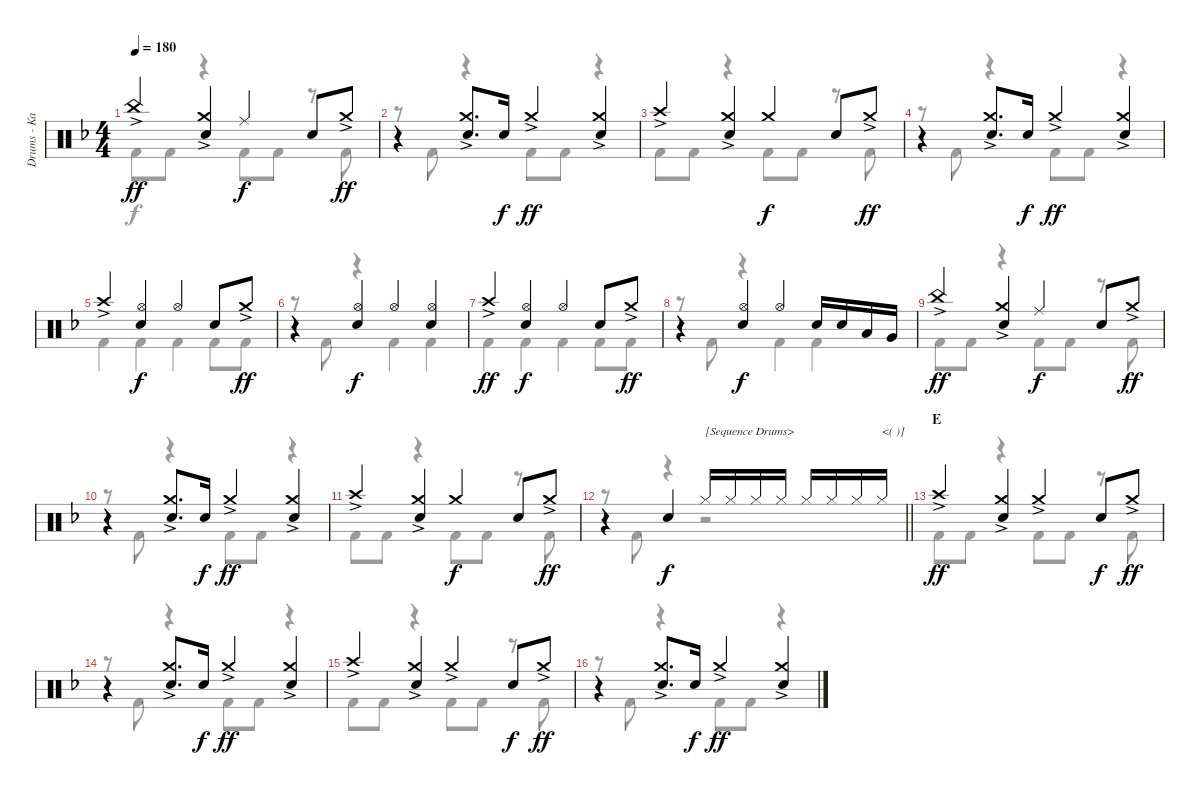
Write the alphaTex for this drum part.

\track ("Drums - Kai" "Drums - Ka") {instrument percussion}
\staff {score}
\articulation defaults
\voice
\ts (4 4)
\tempo 180
\clef neutral
\ks f "China (hit)"{ac}.4{dy ff}
("Crash medium (hit)"{ac} "Snare (hit) 2").4 "Ride (middle)".4{dy f} "Snare (hit) 2".8 "Crash medium (hit)"{ac}.8{dy ff} |
r.4 ("Crash medium (hit)"{ac} "Snare (hit) 2").8{d} "Snare (hit) 2".16{dy f} "Crash medium (hit)"{ac}.4{dy ff} ("Crash medium (hit)"{ac} "Snare (hit) 2").4 |
"Crash high (hit)"{ac}.4 ("Crash medium (hit)"{ac} "Snare (hit) 2").4 "Crash medium (hit)".4{dy f} "Snare (hit) 2".8 "Crash medium (hit)"{ac}.8{dy ff} |
r.4 ("Crash medium (hit)"{ac} "Snare (hit) 2").8{d} "Snare (hit) 2".16{dy f} "Crash medium (hit)"{ac}.4{dy ff} ("Crash medium (hit)"{ac} "Snare (hit) 2").4 |
"Crash high (hit)"{ac}.4 ("Hi-Hat (open)" "Snare (hit) 2").4{dy f} "Hi-Hat (open)".4 "Snare (hit) 2".8 "Crash medium (hit)"{ac}.8{dy ff} |
r.4 ("Hi-Hat (open)" "Snare (hit) 2").4{dy f} "Hi-Hat (open)".4 ("Hi-Hat (open)" "Snare (hit) 2").4 |
"Crash high (hit)"{ac}.4{dy ff} ("Hi-Hat (open)" "Snare (hit) 2").4{dy f} "Hi-Hat (open)".4 "Snare (hit) 2".8 "Crash medium (hit)"{ac}.8{dy ff} |
r.4 ("Hi-Hat (open)" "Snare (hit) 2").4{dy f} "Hi-Hat (open)".4 "Snare (hit) 2".16 "Snare (hit) 2".16 "Low Tom (hit)".16 "Very Low Tom (hit)".16 |
"China (hit)"{ac}.4{dy ff} ("Crash medium (hit)"{ac} "Snare (hit) 2").4 "Ride (middle)".4{dy f} "Snare (hit) 2".8 "Crash medium (hit)"{ac}.8{dy ff} |
r.4 ("Crash medium (hit)"{ac} "Snare (hit) 2").8{d} "Snare (hit) 2".16{dy f} "Crash medium (hit)"{ac}.4{dy ff} ("Crash medium (hit)"{ac} "Snare (hit) 2").4 |
"Crash high (hit)"{ac}.4 ("Crash medium (hit)"{ac} "Snare (hit) 2").4 "Crash medium (hit)".4{dy f} "Snare (hit) 2".8 "Crash medium (hit)"{ac}.8{dy ff} |
\barLineRight lightlight
r.4 "Snare (hit) 2".4{dy f} "Hi-Hat (closed)".16{txt "[Sequence Drums>"} "Hi-Hat (closed)".16 "Hi-Hat (closed)".16 "Hi-Hat (closed)".16 "Hi-Hat (closed)".16 "Hi-Hat (closed)".16 "Hi-Hat (closed)".16 "Hi-Hat (closed)".16{txt "<( )]"} |
\section ("" "E")
"Crash high (hit)"{ac}.4{dy ff} ("Crash medium (hit)"{ac} "Snare (hit) 2").4 "Crash medium (hit)"{ac}.4 "Snare (hit) 2".8{dy f} "Crash medium (hit)"{ac}.8{dy ff} |
r.4 ("Crash medium (hit)"{ac} "Snare (hit) 2").8{d} "Snare (hit) 2".16{dy f} "Crash medium (hit)"{ac}.4{dy ff} ("Crash medium (hit)"{ac} "Snare (hit) 2").4 |
"Crash high (hit)"{ac}.4 ("Crash medium (hit)"{ac} "Snare (hit) 2").4 "Crash medium (hit)"{ac}.4 "Snare (hit) 2".8{dy f} "Crash medium (hit)"{ac}.8{dy ff} |
r.4 ("Crash medium (hit)"{ac} "Snare (hit) 2").8{d} "Snare (hit) 2".16{dy f} "Crash medium (hit)"{ac}.4{dy ff} ("Crash medium (hit)"{ac} "Snare (hit) 2").4
\voice
\clef neutral
\ottava regular
\simile none
\ks f "Kick (hit) 2".8{dy f} "Kick (hit) 2".8
r.4 "Kick (hit) 2".8 "Kick (hit) 2".8 r.8 "Kick (hit) 2".8 |
r.8 "Kick (hit) 2".8 r.4 "Kick (hit) 2".8 "Kick (hit) 2".8 r.4 |
"Kick (hit) 2".8 "Kick (hit) 2".8 r.4 "Kick (hit) 2".8 "Kick (hit) 2".8 r.8 "Kick (hit) 2".8 |
r.8 "Kick (hit) 2".8 r.4 "Kick (hit) 2".8 "Kick (hit) 2".8 r.4 |
"Kick (hit) 2".4 "Kick (hit) 2".4 "Kick (hit) 2".4 "Kick (hit) 2".8 "Kick (hit) 2".8 |
r.8 "Kick (hit) 2".8 r.4 "Kick (hit) 2".4 "Kick (hit) 2".4 |
"Kick (hit) 2".4 "Kick (hit) 2".4 "Kick (hit) 2".4 "Kick (hit) 2".8 "Kick (hit) 2".8 |
r.8 "Kick (hit) 2".8 r.4 "Kick (hit) 2".4 "Kick (hit) 2".4 |
"Kick (hit) 2".8 "Kick (hit) 2".8 r.4 "Kick (hit) 2".8 "Kick (hit) 2".8 r.8 "Kick (hit) 2".8 |
r.8 "Kick (hit) 2".8 r.4 "Kick (hit) 2".8 "Kick (hit) 2".8 r.4 |
"Kick (hit) 2".8 "Kick (hit) 2".8 r.4 "Kick (hit) 2".8 "Kick (hit) 2".8 r.8 "Kick (hit) 2".8 |
\barLineRight lightlight
r.8 "Kick (hit) 2".8 r.4 r.2 |
"Kick (hit) 2".8 "Kick (hit) 2".8 r.4 "Kick (hit) 2".8 "Kick (hit) 2".8 r.8 "Kick (hit) 2".8 |
r.8 "Kick (hit) 2".8 r.4 "Kick (hit) 2".8 "Kick (hit) 2".8 r.4 |
"Kick (hit) 2".8 "Kick (hit) 2".8 r.4 "Kick (hit) 2".8 "Kick (hit) 2".8 r.8 "Kick (hit) 2".8 |
r.8 "Kick (hit) 2".8 r.4 "Kick (hit) 2".8 "Kick (hit) 2".8 r.4
